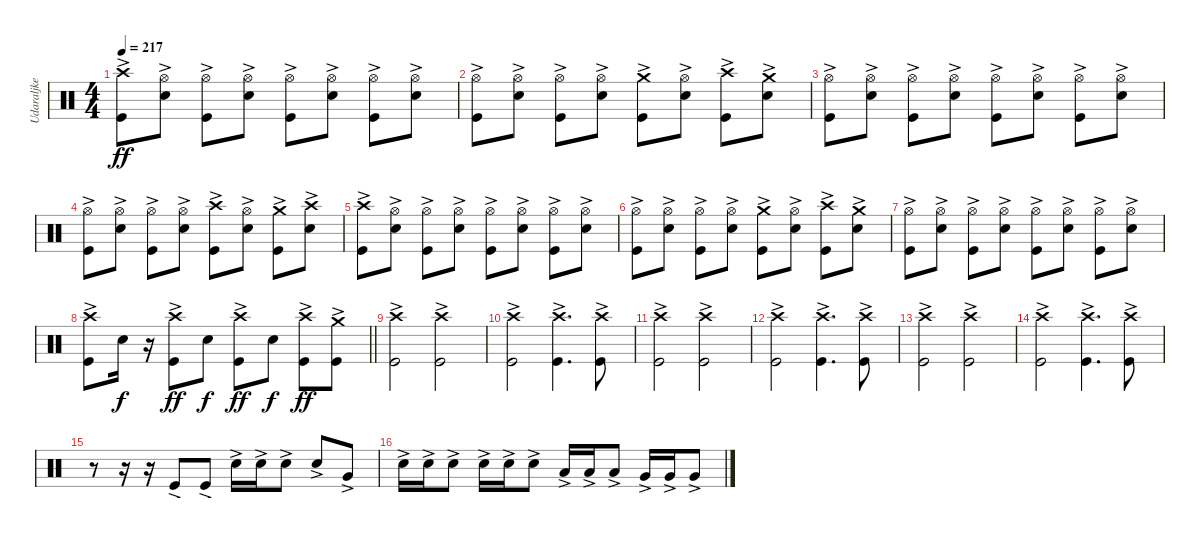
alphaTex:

\track ("Udaraljke" "Udaraljke") {instrument percussion}
\staff {score}
\articulation defaults
\ts (4 4)
\tempo 217
\clef neutral
\ks c
("Kick (hit)"{ac} "Crash high (hit)"{ac}).8{dy ff} ("Snare (hit) 2"{ac} "Hi-Hat (open)").8 ("Kick (hit)"{ac} "Hi-Hat (open)").8 ("Snare (hit) 2"{ac} "Hi-Hat (open)").8 ("Kick (hit)"{ac} "Hi-Hat (open)").8 ("Snare (hit) 2"{ac} "Hi-Hat (open)").8 ("Kick (hit)"{ac} "Hi-Hat (open)").8 ("Snare (hit) 2"{ac} "Hi-Hat (open)").8 |
("Kick (hit)"{ac} "Hi-Hat (open)"{ac}).8 ("Snare (hit) 2"{ac} "Hi-Hat (open)").8 ("Kick (hit)"{ac} "Hi-Hat (open)").8 ("Snare (hit) 2"{ac} "Hi-Hat (open)").8 ("Kick (hit)"{ac} "Crash medium (hit)").8 ("Snare (hit) 2"{ac} "Hi-Hat (open)").8 ("Kick (hit)"{ac} "Crash high (hit)").8 ("Snare (hit) 2"{ac} "Crash medium (hit)").8 |
("Kick (hit)"{ac} "Hi-Hat (open)"{ac}).8 ("Snare (hit) 2"{ac} "Hi-Hat (open)").8 ("Kick (hit)"{ac} "Hi-Hat (open)").8 ("Snare (hit) 2"{ac} "Hi-Hat (open)").8 ("Kick (hit)"{ac} "Hi-Hat (open)").8 ("Snare (hit) 2"{ac} "Hi-Hat (open)").8 ("Kick (hit)"{ac} "Hi-Hat (open)").8 ("Snare (hit) 2"{ac} "Hi-Hat (open)").8 |
("Kick (hit)"{ac} "Hi-Hat (open)"{ac}).8 ("Snare (hit) 2"{ac} "Hi-Hat (open)").8 ("Kick (hit)"{ac} "Hi-Hat (open)").8 ("Snare (hit) 2"{ac} "Hi-Hat (open)").8 ("Kick (hit)"{ac} "Crash high (hit)").8 ("Snare (hit) 2"{ac} "Hi-Hat (open)").8 ("Kick (hit)"{ac} "Crash medium (hit)").8 ("Snare (hit) 2"{ac} "Crash high (hit)").8 |
("Kick (hit)"{ac} "Crash high (hit)"{ac}).8 ("Snare (hit) 2"{ac} "Hi-Hat (open)").8 ("Kick (hit)"{ac} "Hi-Hat (open)").8 ("Snare (hit) 2"{ac} "Hi-Hat (open)").8 ("Kick (hit)"{ac} "Hi-Hat (open)").8 ("Snare (hit) 2"{ac} "Hi-Hat (open)").8 ("Kick (hit)"{ac} "Hi-Hat (open)").8 ("Snare (hit) 2"{ac} "Hi-Hat (open)").8 |
("Kick (hit)"{ac} "Hi-Hat (open)"{ac}).8 ("Snare (hit) 2"{ac} "Hi-Hat (open)").8 ("Kick (hit)"{ac} "Hi-Hat (open)").8 ("Snare (hit) 2"{ac} "Hi-Hat (open)").8 ("Kick (hit)"{ac} "Crash medium (hit)").8 ("Snare (hit) 2"{ac} "Hi-Hat (open)").8 ("Kick (hit)"{ac} "Crash high (hit)").8 ("Snare (hit) 2"{ac} "Crash medium (hit)").8 |
("Kick (hit)"{ac} "Hi-Hat (open)"{ac}).8 ("Snare (hit) 2"{ac} "Hi-Hat (open)").8 ("Kick (hit)"{ac} "Hi-Hat (open)").8 ("Snare (hit) 2"{ac} "Hi-Hat (open)").8 ("Kick (hit)"{ac} "Hi-Hat (open)").8 ("Snare (hit) 2"{ac} "Hi-Hat (open)").8 ("Kick (hit)"{ac} "Hi-Hat (open)").8 ("Snare (hit) 2"{ac} "Hi-Hat (open)").8 |
\barLineRight lightlight
("Kick (hit)"{ac} "Crash high (hit)"{ac}).8 "Snare (hit) 2".16{dy f} r.16 ("Kick (hit)"{ac} "Crash high (hit)").8{dy ff} "Snare (hit) 2".8{dy f} ("Kick (hit)"{ac} "Crash high (hit)").8{dy ff} "Snare (hit) 2".8{dy f} ("Kick (hit)"{ac} "Crash high (hit)").8{dy ff} ("Kick (hit)"{ac} "Crash medium (hit)").8 |
\section ("" "")
("Kick (hit)"{ac} "Crash high (hit)").2 ("Kick (hit)"{ac} "Crash high (hit)").2 |
("Kick (hit)"{ac} "Crash high (hit)").2 ("Kick (hit)"{ac} "Crash high (hit)").4{d} ("Kick (hit)"{ac} "Crash high (hit)").8 |
("Kick (hit)"{ac} "Crash high (hit)").2 ("Kick (hit)"{ac} "Crash high (hit)").2 |
("Kick (hit)"{ac} "Crash high (hit)").2 ("Kick (hit)"{ac} "Crash high (hit)").4{d} ("Kick (hit)"{ac} "Crash high (hit)").8 |
("Kick (hit)"{ac} "Crash high (hit)").2 ("Kick (hit)"{ac} "Crash high (hit)").2 |
("Kick (hit)"{ac} "Crash high (hit)").2 ("Kick (hit)"{ac} "Crash high (hit)").4{d} ("Kick (hit)"{ac} "Crash high (hit)").8 |
r.8 r.16 r.16 "Kick (hit)"{ac}.8 "Kick (hit)"{ac}.8 "Snare (hit) 2"{ac}.16 "Snare (hit) 2"{ac}.16 "Snare (hit) 2"{ac}.8 "Snare (hit) 2"{ac}.8 "Very Low Tom (hit)"{ac}.8 |
"Snare (hit) 2"{ac}.16 "Snare (hit) 2"{ac}.16 "Snare (hit) 2"{ac}.8 "Snare (hit) 2"{ac}.16 "Snare (hit) 2"{ac}.16 "Snare (hit) 2"{ac}.8 "Low Tom (hit)"{ac}.16 "Low Tom (hit)"{ac}.16 "Low Tom (hit)"{ac}.8 "Very Low Tom (hit)"{ac}.16 "Very Low Tom (hit)"{ac}.16 "Very Low Tom (hit)"{ac}.8
